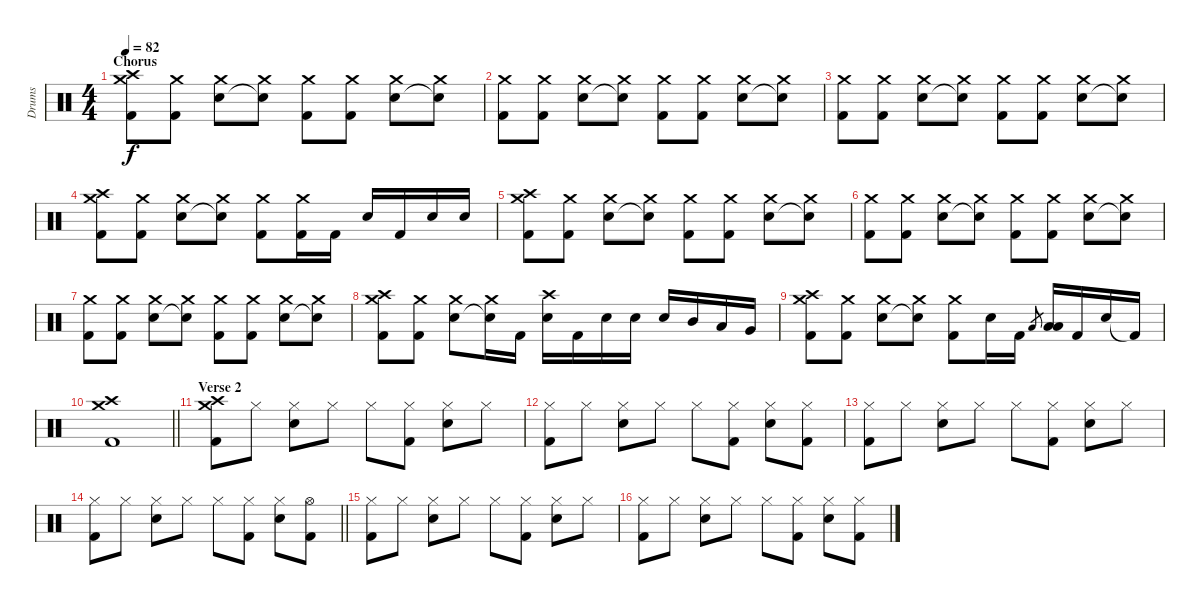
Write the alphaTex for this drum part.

\track ("Drums" "Drums") {instrument percussion}
\staff {score}
\articulation defaults
\ts (4 4)
\section ("" "Chorus")
\tempo 82
\clef neutral
\ks c
("Kick (hit) 2" "Crash medium (hit)" "Crash high (hit)").8{dy f} ("Kick (hit) 2" "Crash medium (hit)").8 ("Electric Snare (hit)" "Crash medium (hit)").8 ("Snare (hit)"{t} "Crash medium (hit)").8 ("Kick (hit) 2" "Crash medium (hit)").8 ("Kick (hit) 2" "Crash medium (hit)").8 ("Electric Snare (hit)" "Crash medium (hit)").8 ("Snare (hit)"{t} "Crash medium (hit)").8 |
("Kick (hit) 2" "Crash medium (hit)").8 ("Kick (hit) 2" "Crash medium (hit)").8 ("Electric Snare (hit)" "Crash medium (hit)").8 ("Snare (hit)"{t} "Crash medium (hit)").8 ("Kick (hit) 2" "Crash medium (hit)").8 ("Kick (hit) 2" "Crash medium (hit)").8 ("Electric Snare (hit)" "Crash medium (hit)").8 ("Snare (hit)"{t} "Crash medium (hit)").8 |
("Kick (hit) 2" "Crash medium (hit)").8 ("Kick (hit) 2" "Crash medium (hit)").8 ("Electric Snare (hit)" "Crash medium (hit)").8 ("Snare (hit)"{t} "Crash medium (hit)").8 ("Kick (hit) 2" "Crash medium (hit)").8 ("Kick (hit) 2" "Crash medium (hit)").8 ("Electric Snare (hit)" "Crash medium (hit)").8 ("Snare (hit)"{t} "Crash medium (hit)").8 |
("Kick (hit) 2" "Crash medium (hit)" "Crash high (hit)").8 ("Kick (hit) 2" "Crash medium (hit)").8 ("Electric Snare (hit)" "Crash medium (hit)").8 ("Snare (hit)"{t} "Crash medium (hit)").8 ("Kick (hit) 2" "Crash medium (hit)").8 ("Kick (hit) 2" "Crash medium (hit)").16 "Kick (hit) 2".16 "Electric Snare (hit)".16 "Kick (hit) 2".16 "Electric Snare (hit)".16 "Electric Snare (hit)".16 |
("Kick (hit) 2" "Crash medium (hit)" "Crash high (hit)").8 ("Kick (hit) 2" "Crash medium (hit)").8 ("Electric Snare (hit)" "Crash medium (hit)").8 ("Snare (hit)"{t} "Crash medium (hit)").8 ("Kick (hit) 2" "Crash medium (hit)").8 ("Kick (hit) 2" "Crash medium (hit)").8 ("Electric Snare (hit)" "Crash medium (hit)").8 ("Snare (hit)"{t} "Crash medium (hit)").8 |
("Kick (hit) 2" "Crash medium (hit)").8 ("Kick (hit) 2" "Crash medium (hit)").8 ("Electric Snare (hit)" "Crash medium (hit)").8 ("Snare (hit)"{t} "Crash medium (hit)").8 ("Kick (hit) 2" "Crash medium (hit)").8 ("Kick (hit) 2" "Crash medium (hit)").8 ("Electric Snare (hit)" "Crash medium (hit)").8 ("Snare (hit)"{t} "Crash medium (hit)").8 |
("Kick (hit) 2" "Crash medium (hit)").8 ("Kick (hit) 2" "Crash medium (hit)").8 ("Electric Snare (hit)" "Crash medium (hit)").8 ("Snare (hit)"{t} "Crash medium (hit)").8 ("Kick (hit) 2" "Crash medium (hit)").8 ("Kick (hit) 2" "Crash medium (hit)").8 ("Electric Snare (hit)" "Crash medium (hit)").8 ("Snare (hit)"{t} "Crash medium (hit)").8 |
("Kick (hit) 2" "Crash medium (hit)" "Crash high (hit)").8 ("Kick (hit) 2" "Crash medium (hit)").8 ("Electric Snare (hit)" "Crash medium (hit)").8 ("Snare (hit)"{t} "Crash medium (hit)").16 "Kick (hit) 2".16 ("Electric Snare (hit)" "Crash high (hit)").16 "Kick (hit) 2".16 "Electric Snare (hit)".16 "Electric Snare (hit)".16 "Electric Snare (hit)".16 "Mid Tom (hit)".16 "Low Tom (hit)".16 "Very Low Tom (hit)".16 |
("Kick (hit) 2" "Crash medium (hit)" "Crash high (hit)").8 ("Kick (hit) 2" "Crash medium (hit)").8 ("Electric Snare (hit)" "Crash medium (hit)").8 ("Snare (hit)"{t} "Crash medium (hit)").8 ("Kick (hit) 2" "Crash medium (hit)").8 "Electric Snare (hit)".16 "Kick (hit) 2".16 "Low Tom (hit)".8{gr} ("Low Tom (hit)" "Low Floor Tom (hit)").16 "Kick (hit) 2".16 "Electric Snare (hit)".16 "Kick (hit) 2"{t}.16 |
\barLineRight lightlight
("Kick (hit) 2" "Crash medium (hit)" "Crash high (hit)").1 |
\section ("" "Verse 2")
("Kick (hit) 2" "Crash medium (hit)" "Crash high (hit)").8 "Hi-Hat (closed)".8 ("Electric Snare (hit)" "Hi-Hat (closed)").8 "Hi-Hat (closed)".8 "Hi-Hat (closed)".8 ("Kick (hit) 2" "Hi-Hat (closed)").8 ("Electric Snare (hit)" "Hi-Hat (closed)").8 "Hi-Hat (closed)".8 |
("Kick (hit) 2" "Hi-Hat (closed)").8 "Hi-Hat (closed)".8 ("Electric Snare (hit)" "Hi-Hat (closed)").8 "Hi-Hat (closed)".8 "Hi-Hat (closed)".8 ("Kick (hit) 2" "Hi-Hat (closed)").8 ("Electric Snare (hit)" "Hi-Hat (closed)").8 ("Kick (hit) 2" "Hi-Hat (closed)").8 |
("Kick (hit) 2" "Hi-Hat (closed)").8 "Hi-Hat (closed)".8 ("Electric Snare (hit)" "Hi-Hat (closed)").8 "Hi-Hat (closed)".8 "Hi-Hat (closed)".8 ("Kick (hit) 2" "Hi-Hat (closed)").8 ("Electric Snare (hit)" "Hi-Hat (closed)").8 "Hi-Hat (closed)".8 |
\barLineRight lightlight
("Kick (hit) 2" "Hi-Hat (closed)").8 "Hi-Hat (closed)".8 ("Electric Snare (hit)" "Hi-Hat (closed)").8 "Hi-Hat (closed)".8 "Hi-Hat (closed)".8 ("Kick (hit) 2" "Hi-Hat (closed)").8 ("Electric Snare (hit)" "Hi-Hat (closed)").8 ("Kick (hit) 2" "Hi-Hat (open)").8 |
("Kick (hit) 2" "Hi-Hat (closed)").8 "Hi-Hat (closed)".8 ("Electric Snare (hit)" "Hi-Hat (closed)").8 "Hi-Hat (closed)".8 "Hi-Hat (closed)".8 ("Kick (hit) 2" "Hi-Hat (closed)").8 ("Electric Snare (hit)" "Hi-Hat (closed)").8 "Hi-Hat (closed)".8 |
("Kick (hit) 2" "Hi-Hat (closed)").8 "Hi-Hat (closed)".8 ("Electric Snare (hit)" "Hi-Hat (closed)").8 "Hi-Hat (closed)".8 "Hi-Hat (closed)".8 ("Kick (hit) 2" "Hi-Hat (closed)").8 ("Electric Snare (hit)" "Hi-Hat (closed)").8 ("Kick (hit) 2" "Hi-Hat (closed)").8
